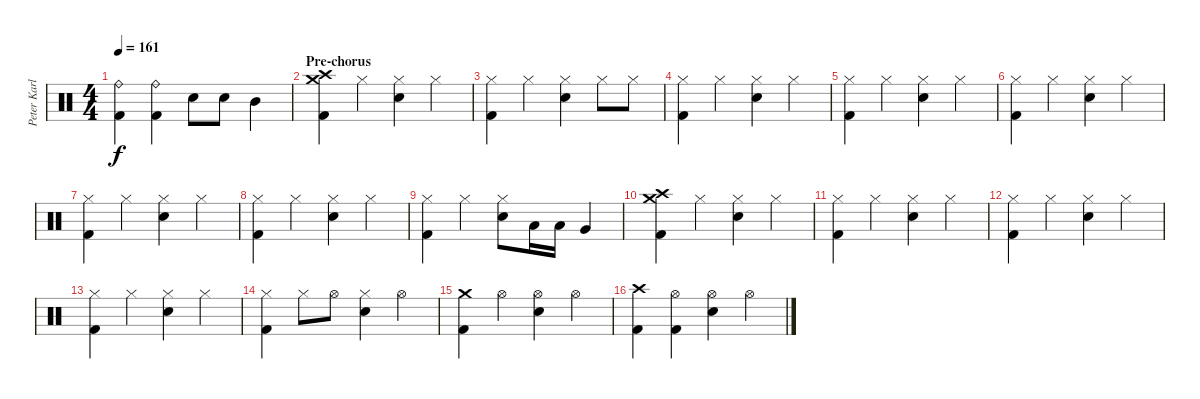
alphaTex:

\track ("Peter Karlsson" "Peter Karl") {instrument percussion}
\staff {score}
\articulation defaults
\ts (4 4)
\tempo 161
\clef neutral
\ks c
("Ride (bell)" "Kick (hit) 2").4{dy f} ("Ride (bell)" "Kick (hit) 2").4 "Snare (hit) 2".8 "Snare (hit) 2".8 "Mid Tom (hit)".4 |
\section ("" "Pre-chorus")
("Crash high (hit)" "Crash medium (hit)" "Kick (hit) 2").4 "Hi-Hat (closed)".4 ("Hi-Hat (closed)" "Snare (hit) 2").4 "Hi-Hat (closed)".4 |
("Hi-Hat (closed)" "Kick (hit) 2").4 "Hi-Hat (closed)".4 ("Hi-Hat (closed)" "Snare (hit) 2").4 "Hi-Hat (closed)".8 "Hi-Hat (closed)".8 |
("Hi-Hat (closed)" "Kick (hit) 2").4 "Hi-Hat (closed)".4 ("Hi-Hat (closed)" "Snare (hit) 2").4 "Hi-Hat (closed)".4 |
("Hi-Hat (closed)" "Kick (hit) 2").4 "Hi-Hat (closed)".4 ("Hi-Hat (closed)" "Snare (hit) 2").4 "Hi-Hat (closed)".4 |
("Hi-Hat (closed)" "Kick (hit) 2").4 "Hi-Hat (closed)".4 ("Hi-Hat (closed)" "Snare (hit) 2").4 "Hi-Hat (closed)".4 |
("Hi-Hat (closed)" "Kick (hit) 2").4 "Hi-Hat (closed)".4 ("Hi-Hat (closed)" "Snare (hit) 2").4 "Hi-Hat (closed)".4 |
("Hi-Hat (closed)" "Kick (hit) 2").4 "Hi-Hat (closed)".4 ("Hi-Hat (closed)" "Snare (hit) 2").4 "Hi-Hat (closed)".4 |
("Hi-Hat (closed)" "Kick (hit) 2").4 "Hi-Hat (closed)".4 ("Hi-Hat (closed)" "Snare (hit) 2").8 "Low Tom (hit)".16 "Low Tom (hit)".16 "Very Low Tom (hit)".4 |
("Crash high (hit)" "Crash medium (hit)" "Kick (hit) 2").4 "Hi-Hat (closed)".4 ("Hi-Hat (closed)" "Snare (hit) 2").4 "Hi-Hat (closed)".4 |
("Hi-Hat (closed)" "Kick (hit) 2").4 "Hi-Hat (closed)".4 ("Hi-Hat (closed)" "Snare (hit) 2").4 "Hi-Hat (closed)".4 |
("Hi-Hat (closed)" "Kick (hit) 2").4 "Hi-Hat (closed)".4 ("Hi-Hat (closed)" "Snare (hit) 2").4 "Hi-Hat (closed)".4 |
("Hi-Hat (closed)" "Kick (hit) 2").4 "Hi-Hat (closed)".4 ("Hi-Hat (closed)" "Snare (hit) 2").4 "Hi-Hat (closed)".4 |
("Hi-Hat (closed)" "Kick (hit) 2").4 "Hi-Hat (closed)".8 "Hi-Hat (open)".8 ("Hi-Hat (closed)" "Snare (hit) 2").4 "Hi-Hat (open)".4 |
("Crash medium (hit)" "Kick (hit) 2").4 "Hi-Hat (open)".4 ("Hi-Hat (open)" "Snare (hit) 2").4 "Hi-Hat (open)".4 |
("Crash high (hit)" "Kick (hit) 2").4 ("Hi-Hat (open)" "Kick (hit) 2").4 ("Hi-Hat (open)" "Snare (hit) 2").4 "Hi-Hat (open)".4
